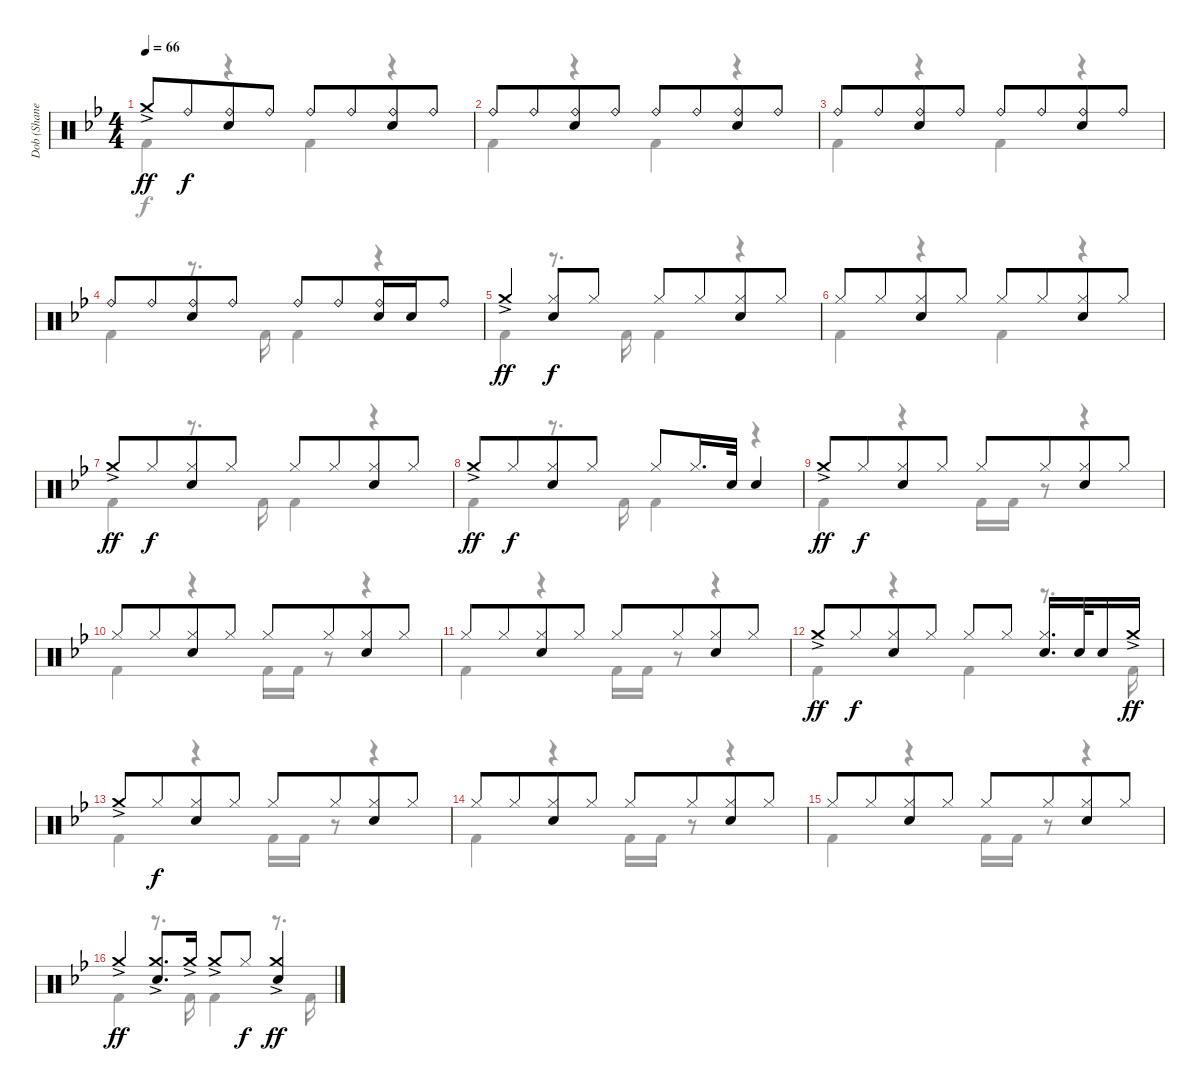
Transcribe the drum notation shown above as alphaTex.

\track ("Dob (Shane Gaalaas)" "Dob (Shane") {instrument percussion}
\staff {score}
\articulation defaults
\voice
\ts (4 4)
\tempo 66
\clef neutral
\ks bb "Crash medium (hit)"{ac}.8{dy ff} "Ride (bell)".8{dy f beam merge}
("Ride (bell)" "Electric Snare (hit)").8 "Ride (bell)".8 "Ride (bell)".8 "Ride (bell)".8{beam merge} ("Ride (bell)" "Electric Snare (hit)").8 "Ride (bell)".8 |
"Ride (bell)".8 "Ride (bell)".8{beam merge} ("Ride (bell)" "Electric Snare (hit)").8 "Ride (bell)".8 "Ride (bell)".8 "Ride (bell)".8{beam merge} ("Ride (bell)" "Electric Snare (hit)").8 "Ride (bell)".8 |
"Ride (bell)".8 "Ride (bell)".8{beam merge} ("Ride (bell)" "Electric Snare (hit)").8 "Ride (bell)".8 "Ride (bell)".8 "Ride (bell)".8{beam merge} ("Ride (bell)" "Electric Snare (hit)").8 "Ride (bell)".8 |
"Ride (bell)".8 "Ride (bell)".8{beam merge} ("Ride (bell)" "Electric Snare (hit)").8 "Ride (bell)".8 "Ride (bell)".8 "Ride (bell)".8{beam merge} ("Ride (bell)" "Electric Snare (hit)").16 "Electric Snare (hit)".16 "Ride (bell)".8 |
"Crash medium (hit)"{ac}.4{dy ff beam merge} ("Hi-Hat (closed)" "Electric Snare (hit)").8{dy f} "Hi-Hat (closed)".8 "Hi-Hat (closed)".8 "Hi-Hat (closed)".8{beam merge} ("Hi-Hat (closed)" "Electric Snare (hit)").8 "Hi-Hat (closed)".8 |
"Hi-Hat (closed)".8 "Hi-Hat (closed)".8{beam merge} ("Hi-Hat (closed)" "Electric Snare (hit)").8 "Hi-Hat (closed)".8 "Hi-Hat (closed)".8 "Hi-Hat (closed)".8{beam merge} ("Hi-Hat (closed)" "Electric Snare (hit)").8 "Hi-Hat (closed)".8 |
"Crash medium (hit)"{ac}.8{dy ff} "Hi-Hat (closed)".8{dy f beam merge} ("Hi-Hat (closed)" "Electric Snare (hit)").8 "Hi-Hat (closed)".8 "Hi-Hat (closed)".8 "Hi-Hat (closed)".8{beam merge} ("Hi-Hat (closed)" "Electric Snare (hit)").8 "Hi-Hat (closed)".8 |
"Crash medium (hit)"{ac}.8{dy ff} "Hi-Hat (closed)".8{dy f beam merge} ("Hi-Hat (closed)" "Electric Snare (hit)").8 "Hi-Hat (closed)".8 "Hi-Hat (closed)".8 "Hi-Hat (closed)".16{d} "Electric Snare (hit)".32 "Electric Snare (hit)".4 |
"Crash medium (hit)"{ac}.8{dy ff} "Hi-Hat (closed)".8{dy f beam merge} ("Hi-Hat (closed)" "Electric Snare (hit)").8 "Hi-Hat (closed)".8 "Hi-Hat (closed)".8 "Hi-Hat (closed)".8{beam merge} ("Hi-Hat (closed)" "Electric Snare (hit)").8 "Hi-Hat (closed)".8 |
"Hi-Hat (closed)".8 "Hi-Hat (closed)".8{beam merge} ("Hi-Hat (closed)" "Electric Snare (hit)").8 "Hi-Hat (closed)".8 "Hi-Hat (closed)".8 "Hi-Hat (closed)".8{beam merge} ("Hi-Hat (closed)" "Electric Snare (hit)").8 "Hi-Hat (closed)".8 |
"Hi-Hat (closed)".8 "Hi-Hat (closed)".8{beam merge} ("Hi-Hat (closed)" "Electric Snare (hit)").8 "Hi-Hat (closed)".8 "Hi-Hat (closed)".8 "Hi-Hat (closed)".8{beam merge} ("Hi-Hat (closed)" "Electric Snare (hit)").8 "Hi-Hat (closed)".8 |
"Crash medium (hit)"{ac}.8{dy ff} "Hi-Hat (closed)".8{dy f beam merge} ("Hi-Hat (closed)" "Electric Snare (hit)").8 "Hi-Hat (closed)".8 "Hi-Hat (closed)".8 "Hi-Hat (closed)".8 ("Hi-Hat (closed)" "Electric Snare (hit)").16{d} "Electric Snare (hit)".32 "Electric Snare (hit)".16 "Crash medium (hit)"{ac}.16{dy ff} |
"Crash medium (hit)"{ac}.8 "Hi-Hat (closed)".8{dy f beam merge} ("Hi-Hat (closed)" "Electric Snare (hit)").8 "Hi-Hat (closed)".8 "Hi-Hat (closed)".8 "Hi-Hat (closed)".8{beam merge} ("Hi-Hat (closed)" "Electric Snare (hit)").8 "Hi-Hat (closed)".8 |
"Hi-Hat (closed)".8 "Hi-Hat (closed)".8{beam merge} ("Hi-Hat (closed)" "Electric Snare (hit)").8 "Hi-Hat (closed)".8 "Hi-Hat (closed)".8 "Hi-Hat (closed)".8{beam merge} ("Hi-Hat (closed)" "Electric Snare (hit)").8 "Hi-Hat (closed)".8 |
"Hi-Hat (closed)".8 "Hi-Hat (closed)".8{beam merge} ("Hi-Hat (closed)" "Electric Snare (hit)").8 "Hi-Hat (closed)".8 "Hi-Hat (closed)".8 "Hi-Hat (closed)".8{beam merge} ("Hi-Hat (closed)" "Electric Snare (hit)").8 "Hi-Hat (closed)".8 |
"Crash medium (hit)"{ac}.4{dy ff} ("Crash medium (hit)"{ac} "Electric Snare (hit)").8{d} "Crash medium (hit)"{ac}.16 "Crash medium (hit)"{ac}.8 "Hi-Hat (closed)".8{dy f} ("Crash medium (hit)"{ac} "Electric Snare (hit)").4{dy ff}
\voice
\clef neutral
\ottava regular
\simile none
\ks bb "Kick (hit) 2".4{dy f}
r.4 "Kick (hit) 2".4 r.4 |
"Kick (hit) 2".4 r.4 "Kick (hit) 2".4 r.4 |
"Kick (hit) 2".4 r.4 "Kick (hit) 2".4 r.4 |
"Kick (hit) 2".4 r.8{d} "Kick (hit) 2".16 "Kick (hit) 2".4 r.4 |
"Kick (hit) 2".4 r.8{d} "Kick (hit) 2".16 "Kick (hit) 2".4 r.4 |
"Kick (hit) 2".4 r.4 "Kick (hit) 2".4 r.4 |
"Kick (hit) 2".4 r.8{d} "Kick (hit) 2".16 "Kick (hit) 2".4 r.4 |
"Kick (hit) 2".4 r.8{d} "Kick (hit) 2".16 "Kick (hit) 2".4 r.4 |
"Kick (hit) 2".4 r.4 "Kick (hit) 2".16 "Kick (hit) 2".16 r.8 r.4 |
"Kick (hit) 2".4 r.4 "Kick (hit) 2".16 "Kick (hit) 2".16 r.8 r.4 |
"Kick (hit) 2".4 r.4 "Kick (hit) 2".16 "Kick (hit) 2".16 r.8 r.4 |
"Kick (hit) 2".4 r.4 "Kick (hit) 2".4 r.8{d} "Kick (hit) 2".16 |
"Kick (hit) 2".4 r.4 "Kick (hit) 2".16 "Kick (hit) 2".16 r.8 r.4 |
"Kick (hit) 2".4 r.4 "Kick (hit) 2".16 "Kick (hit) 2".16 r.8 r.4 |
"Kick (hit) 2".4 r.4 "Kick (hit) 2".16 "Kick (hit) 2".16 r.8 r.4 |
"Kick (hit) 2".4 r.8{d} "Kick (hit) 2".16 "Kick (hit) 2".4 r.8{d} "Kick (hit) 2".16
